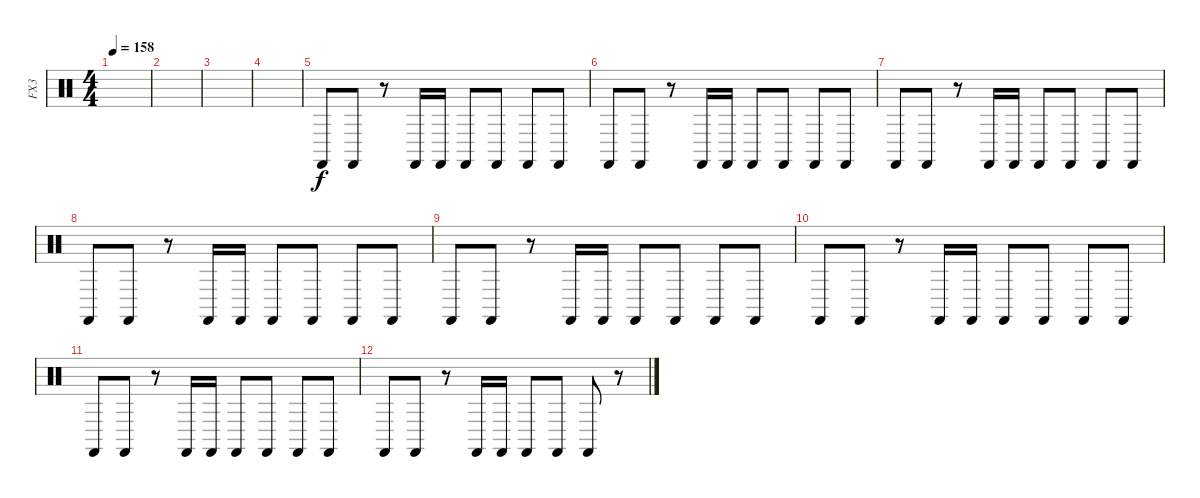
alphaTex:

\track ("FX3" "FX3") {instrument percussion}
\staff {score}
\articulation defaults
\ts (4 4)
\tempo 158
\clef neutral
\ks c
|
|
|
|
"Castanets (hit)".8 "Castanets (hit)".8 r.8 "Castanets (hit)".16 "Castanets (hit)".16 "Castanets (hit)".8 "Castanets (hit)".8 "Castanets (hit)".8 "Castanets (hit)".8 |
"Castanets (hit)".8 "Castanets (hit)".8 r.8 "Castanets (hit)".16 "Castanets (hit)".16 "Castanets (hit)".8 "Castanets (hit)".8 "Castanets (hit)".8 "Castanets (hit)".8 |
"Castanets (hit)".8 "Castanets (hit)".8 r.8 "Castanets (hit)".16 "Castanets (hit)".16 "Castanets (hit)".8 "Castanets (hit)".8 "Castanets (hit)".8 "Castanets (hit)".8 |
"Castanets (hit)".8 "Castanets (hit)".8 r.8 "Castanets (hit)".16 "Castanets (hit)".16 "Castanets (hit)".8 "Castanets (hit)".8 "Castanets (hit)".8 "Castanets (hit)".8 |
"Castanets (hit)".8 "Castanets (hit)".8 r.8 "Castanets (hit)".16 "Castanets (hit)".16 "Castanets (hit)".8 "Castanets (hit)".8 "Castanets (hit)".8 "Castanets (hit)".8 |
"Castanets (hit)".8 "Castanets (hit)".8 r.8 "Castanets (hit)".16 "Castanets (hit)".16 "Castanets (hit)".8 "Castanets (hit)".8 "Castanets (hit)".8 "Castanets (hit)".8 |
"Castanets (hit)".8 "Castanets (hit)".8 r.8 "Castanets (hit)".16 "Castanets (hit)".16 "Castanets (hit)".8 "Castanets (hit)".8 "Castanets (hit)".8 "Castanets (hit)".8 |
"Castanets (hit)".8 "Castanets (hit)".8 r.8 "Castanets (hit)".16 "Castanets (hit)".16 "Castanets (hit)".8 "Castanets (hit)".8 "Castanets (hit)".8 r.8
